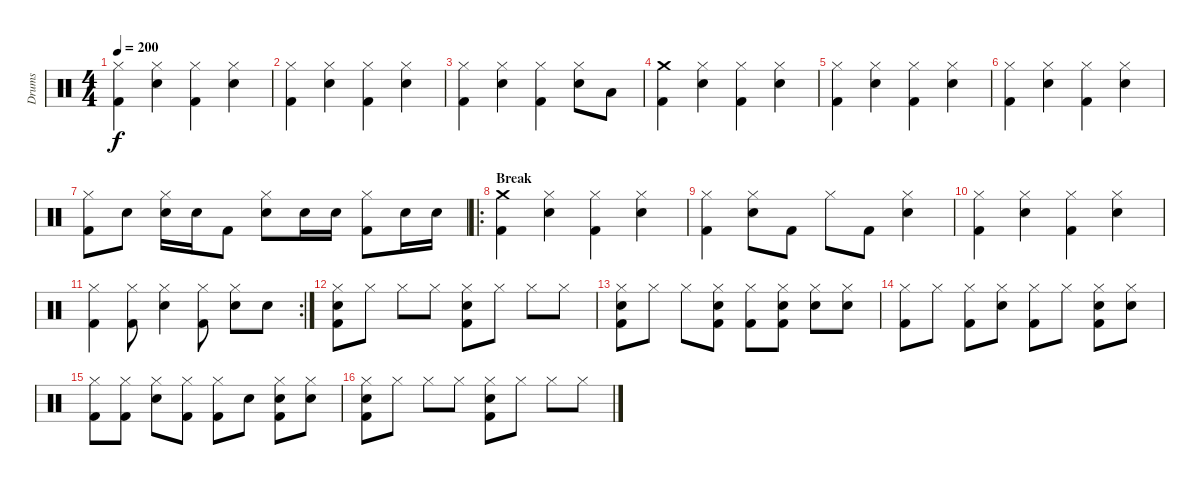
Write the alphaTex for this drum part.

\track ("Drums" "Drums") {instrument percussion}
\staff {score}
\articulation defaults
\ts (4 4)
\tempo 200
\clef neutral
\ks c
("Hi-Hat (closed)" "Kick (hit) 2").4{dy f} ("Hi-Hat (closed)" "Snare (hit) 2").4 ("Hi-Hat (closed)" "Kick (hit) 2").4 ("Hi-Hat (closed)" "Snare (hit) 2").4 |
("Hi-Hat (closed)" "Kick (hit) 2").4 ("Hi-Hat (closed)" "Snare (hit) 2").4 ("Hi-Hat (closed)" "Kick (hit) 2").4 ("Hi-Hat (closed)" "Snare (hit) 2").4 |
("Hi-Hat (closed)" "Kick (hit) 2").4 ("Hi-Hat (closed)" "Snare (hit) 2").4 ("Hi-Hat (closed)" "Kick (hit) 2").4 ("Hi-Hat (closed)" "Snare (hit) 2").8 "Low Floor Tom (hit)".8 |
("Crash medium (hit)" "Kick (hit) 2").4 ("Hi-Hat (closed)" "Snare (hit) 2").4 ("Hi-Hat (closed)" "Kick (hit) 2").4 ("Hi-Hat (closed)" "Snare (hit) 2").4 |
("Hi-Hat (closed)" "Kick (hit) 2").4 ("Hi-Hat (closed)" "Snare (hit) 2").4 ("Hi-Hat (closed)" "Kick (hit) 2").4 ("Hi-Hat (closed)" "Snare (hit) 2").4 |
("Hi-Hat (closed)" "Kick (hit) 2").4 ("Hi-Hat (closed)" "Snare (hit) 2").4 ("Hi-Hat (closed)" "Kick (hit) 2").4 ("Hi-Hat (closed)" "Snare (hit) 2").4 |
("Hi-Hat (closed)" "Kick (hit) 2").8 "Snare (hit) 2".8 ("Hi-Hat (closed)" "Snare (hit) 2").16 "Snare (hit) 2".16 "Kick (hit) 2".8 ("Hi-Hat (closed)" "Snare (hit) 2").8 "Snare (hit) 2".16 "Snare (hit) 2".16 ("Hi-Hat (closed)" "Kick (hit) 2").8 "Snare (hit) 2".16 "Snare (hit) 2".16 |
\ro
\section ("" "Break")
("Crash medium (hit)" "Kick (hit) 2").4 ("Hi-Hat (closed)" "Snare (hit) 2").4 ("Hi-Hat (closed)" "Kick (hit) 2").4 ("Hi-Hat (closed)" "Snare (hit) 2").4 |
("Hi-Hat (closed)" "Kick (hit) 2").4 ("Hi-Hat (closed)" "Snare (hit) 2").8 "Kick (hit) 2".8 "Hi-Hat (closed)".8 "Kick (hit) 2".8 ("Hi-Hat (closed)" "Snare (hit) 2").4 |
("Hi-Hat (closed)" "Kick (hit) 2").4 ("Hi-Hat (closed)" "Snare (hit) 2").4 ("Hi-Hat (closed)" "Kick (hit) 2").4 ("Hi-Hat (closed)" "Snare (hit) 2").4 |
\rc 2
("Hi-Hat (closed)" "Kick (hit) 2").4 ("Hi-Hat (closed)" "Kick (hit) 2").8 ("Hi-Hat (closed)" "Snare (hit) 2").4 ("Hi-Hat (closed)" "Kick (hit) 2").8 ("Hi-Hat (closed)" "Snare (hit) 2").8 "Snare (hit) 2".8 |
("Hi-Hat (closed)" "Snare (hit) 2" "Kick (hit) 2").8 "Hi-Hat (closed)".8 "Hi-Hat (closed)".8 "Hi-Hat (closed)".8 ("Hi-Hat (closed)" "Snare (hit) 2" "Kick (hit) 2").8 "Hi-Hat (closed)".8 "Hi-Hat (closed)".8 "Hi-Hat (closed)".8 |
("Hi-Hat (closed)" "Snare (hit) 2" "Kick (hit) 2").8 "Hi-Hat (closed)".8 "Hi-Hat (closed)".8 ("Hi-Hat (closed)" "Snare (hit) 2" "Kick (hit) 2").8 ("Hi-Hat (closed)" "Kick (hit) 2").8 ("Hi-Hat (closed)" "Snare (hit) 2" "Kick (hit) 2").8 ("Hi-Hat (closed)" "Snare (hit) 2").8 ("Hi-Hat (closed)" "Snare (hit) 2").8 |
("Hi-Hat (closed)" "Kick (hit) 2").8 "Hi-Hat (closed)".8 ("Hi-Hat (closed)" "Kick (hit) 2").8 ("Hi-Hat (closed)" "Snare (hit) 2").8 ("Hi-Hat (closed)" "Kick (hit) 2").8 "Hi-Hat (closed)".8 ("Hi-Hat (closed)" "Snare (hit) 2" "Kick (hit) 2").8 ("Hi-Hat (closed)" "Snare (hit) 2").8 |
("Hi-Hat (closed)" "Kick (hit) 2").8 ("Hi-Hat (closed)" "Kick (hit) 2").8 ("Hi-Hat (closed)" "Snare (hit) 2").8 ("Hi-Hat (closed)" "Kick (hit) 2").8 ("Hi-Hat (closed)" "Kick (hit) 2").8 "Snare (hit) 2".8 ("Hi-Hat (closed)" "Snare (hit) 2" "Kick (hit) 2").8 ("Hi-Hat (closed)" "Snare (hit) 2").8 |
("Hi-Hat (closed)" "Snare (hit) 2" "Kick (hit) 2").8 "Hi-Hat (closed)".8 "Hi-Hat (closed)".8 "Hi-Hat (closed)".8 ("Hi-Hat (closed)" "Snare (hit) 2" "Kick (hit) 2").8 "Hi-Hat (closed)".8 "Hi-Hat (closed)".8 "Hi-Hat (closed)".8
